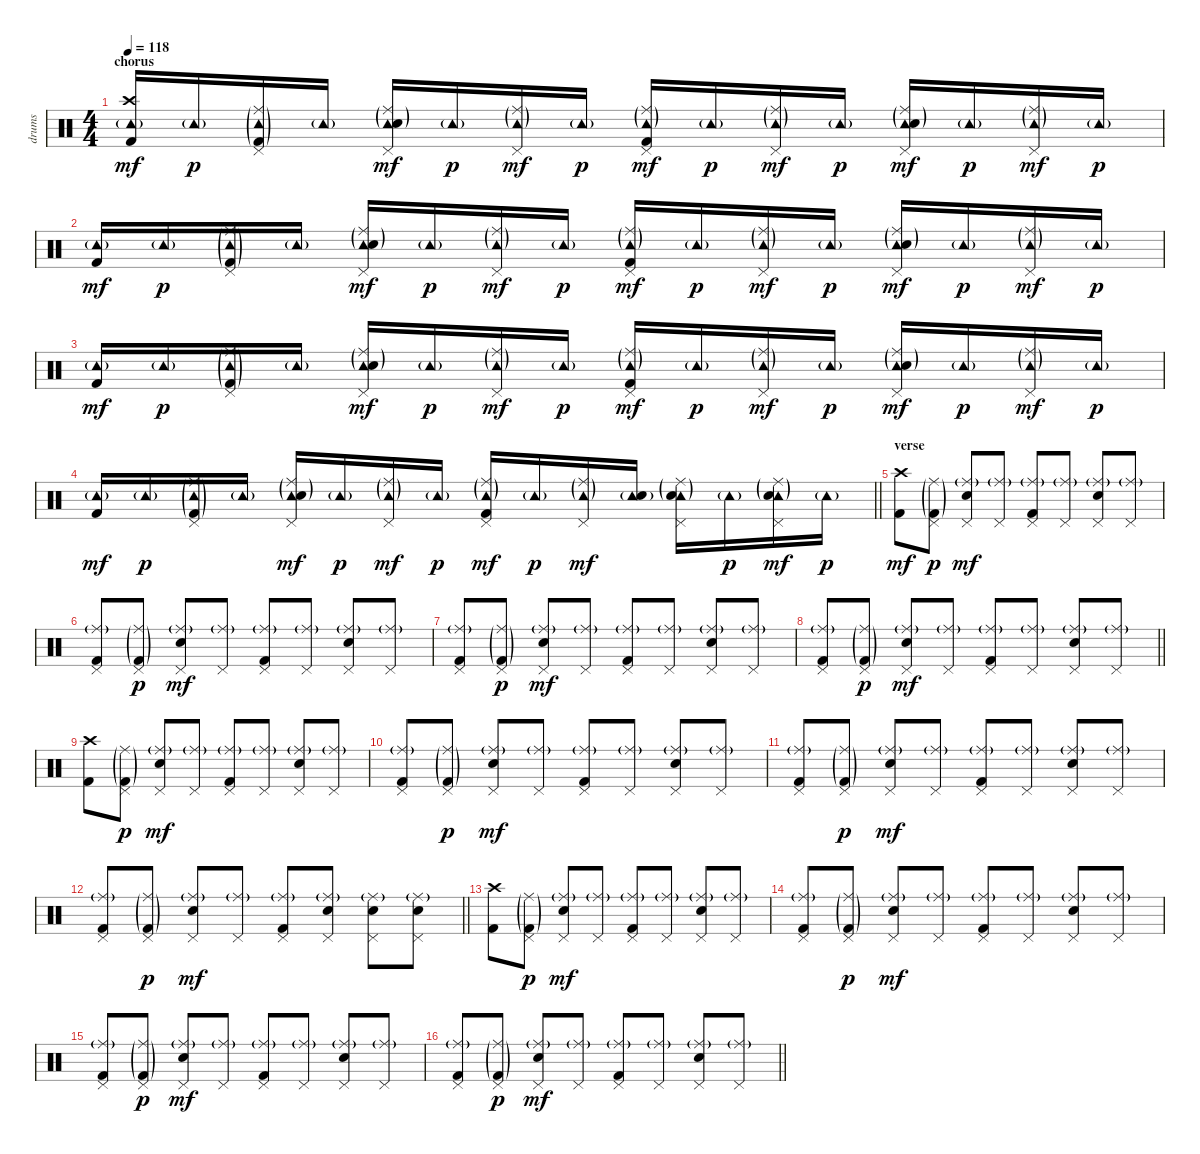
\track ("drums" "drums") {instrument percussion}
\staff {score}
\articulation defaults
\ts (4 4)
\section ("" "chorus")
\tempo 118
\clef neutral
\ks c
("Tambourine (hit)"{g} "Crash high (hit)" "Kick (hit) 2").16{dy mf} "Tambourine (hit)"{g}.16{dy p} ("Tambourine (hit)"{g} "Ride (middle)"{g} "Pedal Hi-Hat (hit)" "Kick (hit) 2"{g}).16 "Tambourine (hit)"{g}.16 ("Tambourine (hit)"{g} "Ride (middle)"{g} "Snare (hit) 2" "Pedal Hi-Hat (hit)").16{dy mf} "Tambourine (hit)"{g}.16{dy p} ("Tambourine (hit)"{g} "Ride (middle)"{g} "Pedal Hi-Hat (hit)").16{dy mf} "Tambourine (hit)"{g}.16{dy p} ("Tambourine (hit)"{g} "Ride (middle)"{g} "Kick (hit) 2" "Pedal Hi-Hat (hit)").16{dy mf} "Tambourine (hit)"{g}.16{dy p} ("Tambourine (hit)"{g} "Ride (middle)"{g} "Pedal Hi-Hat (hit)").16{dy mf} "Tambourine (hit)"{g}.16{dy p} ("Tambourine (hit)"{g} "Ride (middle)"{g} "Snare (hit) 2" "Pedal Hi-Hat (hit)").16{dy mf} "Tambourine (hit)"{g}.16{dy p} ("Tambourine (hit)"{g} "Ride (middle)"{g} "Pedal Hi-Hat (hit)").16{dy mf} "Tambourine (hit)"{g}.16{dy p} |
("Tambourine (hit)"{g} "Kick (hit) 2").16{dy mf} "Tambourine (hit)"{g}.16{dy p} ("Tambourine (hit)"{g} "Ride (middle)"{g} "Pedal Hi-Hat (hit)" "Kick (hit) 2"{g}).16 "Tambourine (hit)"{g}.16 ("Tambourine (hit)"{g} "Ride (middle)"{g} "Snare (hit) 2" "Pedal Hi-Hat (hit)").16{dy mf} "Tambourine (hit)"{g}.16{dy p} ("Tambourine (hit)"{g} "Ride (middle)"{g} "Pedal Hi-Hat (hit)").16{dy mf} "Tambourine (hit)"{g}.16{dy p} ("Tambourine (hit)"{g} "Ride (middle)"{g} "Kick (hit) 2" "Pedal Hi-Hat (hit)").16{dy mf} "Tambourine (hit)"{g}.16{dy p} ("Tambourine (hit)"{g} "Ride (middle)"{g} "Pedal Hi-Hat (hit)").16{dy mf} "Tambourine (hit)"{g}.16{dy p} ("Tambourine (hit)"{g} "Ride (middle)"{g} "Snare (hit) 2" "Pedal Hi-Hat (hit)").16{dy mf} "Tambourine (hit)"{g}.16{dy p} ("Tambourine (hit)"{g} "Ride (middle)"{g} "Pedal Hi-Hat (hit)").16{dy mf} "Tambourine (hit)"{g}.16{dy p} |
("Tambourine (hit)"{g} "Kick (hit) 2").16{dy mf} "Tambourine (hit)"{g}.16{dy p} ("Tambourine (hit)"{g} "Ride (middle)"{g} "Pedal Hi-Hat (hit)" "Kick (hit) 2"{g}).16 "Tambourine (hit)"{g}.16 ("Tambourine (hit)"{g} "Ride (middle)"{g} "Snare (hit) 2" "Pedal Hi-Hat (hit)").16{dy mf} "Tambourine (hit)"{g}.16{dy p} ("Tambourine (hit)"{g} "Ride (middle)"{g} "Pedal Hi-Hat (hit)").16{dy mf} "Tambourine (hit)"{g}.16{dy p} ("Tambourine (hit)"{g} "Ride (middle)"{g} "Kick (hit) 2" "Pedal Hi-Hat (hit)").16{dy mf} "Tambourine (hit)"{g}.16{dy p} ("Tambourine (hit)"{g} "Ride (middle)"{g} "Pedal Hi-Hat (hit)").16{dy mf} "Tambourine (hit)"{g}.16{dy p} ("Tambourine (hit)"{g} "Ride (middle)"{g} "Snare (hit) 2" "Pedal Hi-Hat (hit)").16{dy mf} "Tambourine (hit)"{g}.16{dy p} ("Tambourine (hit)"{g} "Ride (middle)"{g} "Pedal Hi-Hat (hit)").16{dy mf} "Tambourine (hit)"{g}.16{dy p} |
\barLineRight lightlight
("Tambourine (hit)"{g} "Kick (hit) 2").16{dy mf} "Tambourine (hit)"{g}.16{dy p} ("Tambourine (hit)"{g} "Ride (middle)"{g} "Pedal Hi-Hat (hit)" "Kick (hit) 2"{g}).16 "Tambourine (hit)"{g}.16 ("Tambourine (hit)"{g} "Ride (middle)"{g} "Snare (hit) 2" "Pedal Hi-Hat (hit)").16{dy mf} "Tambourine (hit)"{g}.16{dy p} ("Tambourine (hit)"{g} "Ride (middle)"{g} "Pedal Hi-Hat (hit)").16{dy mf} "Tambourine (hit)"{g}.16{dy p} ("Tambourine (hit)"{g} "Ride (middle)"{g} "Kick (hit) 2" "Pedal Hi-Hat (hit)").16{dy mf} "Tambourine (hit)"{g}.16{dy p} ("Tambourine (hit)"{g} "Ride (middle)"{g} "Pedal Hi-Hat (hit)").16{dy mf} ("Tambourine (hit)"{g} "Snare (hit) 2").16 ("Tambourine (hit)"{g} "Ride (middle)"{g} "Snare (hit) 2" "Pedal Hi-Hat (hit)").16 "Tambourine (hit)"{g}.16{dy p} ("Tambourine (hit)"{g} "Ride (middle)"{g} "Snare (hit) 2" "Pedal Hi-Hat (hit)").16{dy mf} "Tambourine (hit)"{g}.16{dy p} |
\section ("" "verse ")
("Crash high (hit)" "Kick (hit) 2").8{dy mf} ("Ride (middle)"{g} "Pedal Hi-Hat (hit)" "Kick (hit) 2"{g}).8{dy p} ("Ride (middle)"{g} "Snare (hit) 2" "Pedal Hi-Hat (hit)").8{dy mf} ("Ride (middle)"{g} "Pedal Hi-Hat (hit)").8 ("Ride (middle)"{g} "Kick (hit) 2" "Pedal Hi-Hat (hit)").8 ("Ride (middle)"{g} "Pedal Hi-Hat (hit)").8 ("Ride (middle)"{g} "Snare (hit) 2" "Pedal Hi-Hat (hit)").8 ("Ride (middle)"{g} "Pedal Hi-Hat (hit)").8 |
("Ride (middle)"{g} "Kick (hit) 2" "Pedal Hi-Hat (hit)").8 ("Ride (middle)"{g} "Pedal Hi-Hat (hit)" "Kick (hit) 2"{g}).8{dy p} ("Ride (middle)"{g} "Snare (hit) 2" "Pedal Hi-Hat (hit)").8{dy mf} ("Ride (middle)"{g} "Pedal Hi-Hat (hit)").8 ("Ride (middle)"{g} "Kick (hit) 2" "Pedal Hi-Hat (hit)").8 ("Ride (middle)"{g} "Pedal Hi-Hat (hit)").8 ("Ride (middle)"{g} "Snare (hit) 2" "Pedal Hi-Hat (hit)").8 ("Ride (middle)"{g} "Pedal Hi-Hat (hit)").8 |
("Ride (middle)"{g} "Kick (hit) 2" "Pedal Hi-Hat (hit)").8 ("Ride (middle)"{g} "Pedal Hi-Hat (hit)" "Kick (hit) 2"{g}).8{dy p} ("Ride (middle)"{g} "Snare (hit) 2" "Pedal Hi-Hat (hit)").8{dy mf} ("Ride (middle)"{g} "Pedal Hi-Hat (hit)").8 ("Ride (middle)"{g} "Kick (hit) 2" "Pedal Hi-Hat (hit)").8 ("Ride (middle)"{g} "Pedal Hi-Hat (hit)").8 ("Ride (middle)"{g} "Snare (hit) 2" "Pedal Hi-Hat (hit)").8 ("Ride (middle)"{g} "Pedal Hi-Hat (hit)").8 |
\barLineRight lightlight
("Ride (middle)"{g} "Kick (hit) 2" "Pedal Hi-Hat (hit)").8 ("Ride (middle)"{g} "Pedal Hi-Hat (hit)" "Kick (hit) 2"{g}).8{dy p} ("Ride (middle)"{g} "Snare (hit) 2" "Pedal Hi-Hat (hit)").8{dy mf} ("Ride (middle)"{g} "Pedal Hi-Hat (hit)").8 ("Ride (middle)"{g} "Kick (hit) 2" "Pedal Hi-Hat (hit)").8 ("Ride (middle)"{g} "Pedal Hi-Hat (hit)").8 ("Ride (middle)"{g} "Snare (hit) 2" "Pedal Hi-Hat (hit)").8 ("Ride (middle)"{g} "Pedal Hi-Hat (hit)").8 |
("Crash high (hit)" "Kick (hit) 2").8 ("Ride (middle)"{g} "Pedal Hi-Hat (hit)" "Kick (hit) 2"{g}).8{dy p} ("Ride (middle)"{g} "Snare (hit) 2" "Pedal Hi-Hat (hit)").8{dy mf} ("Ride (middle)"{g} "Pedal Hi-Hat (hit)").8 ("Ride (middle)"{g} "Kick (hit) 2" "Pedal Hi-Hat (hit)").8 ("Ride (middle)"{g} "Pedal Hi-Hat (hit)").8 ("Ride (middle)"{g} "Snare (hit) 2" "Pedal Hi-Hat (hit)").8 ("Ride (middle)"{g} "Pedal Hi-Hat (hit)").8 |
("Ride (middle)"{g} "Kick (hit) 2" "Pedal Hi-Hat (hit)").8 ("Ride (middle)"{g} "Pedal Hi-Hat (hit)" "Kick (hit) 2"{g}).8{dy p} ("Ride (middle)"{g} "Snare (hit) 2" "Pedal Hi-Hat (hit)").8{dy mf} ("Ride (middle)"{g} "Pedal Hi-Hat (hit)").8 ("Ride (middle)"{g} "Kick (hit) 2" "Pedal Hi-Hat (hit)").8 ("Ride (middle)"{g} "Pedal Hi-Hat (hit)").8 ("Ride (middle)"{g} "Snare (hit) 2" "Pedal Hi-Hat (hit)").8 ("Ride (middle)"{g} "Pedal Hi-Hat (hit)").8 |
("Ride (middle)"{g} "Kick (hit) 2" "Pedal Hi-Hat (hit)").8 ("Ride (middle)"{g} "Pedal Hi-Hat (hit)" "Kick (hit) 2"{g}).8{dy p} ("Ride (middle)"{g} "Snare (hit) 2" "Pedal Hi-Hat (hit)").8{dy mf} ("Ride (middle)"{g} "Pedal Hi-Hat (hit)").8 ("Ride (middle)"{g} "Kick (hit) 2" "Pedal Hi-Hat (hit)").8 ("Ride (middle)"{g} "Pedal Hi-Hat (hit)").8 ("Ride (middle)"{g} "Snare (hit) 2" "Pedal Hi-Hat (hit)").8 ("Ride (middle)"{g} "Pedal Hi-Hat (hit)").8 |
\barLineRight lightlight
("Ride (middle)"{g} "Kick (hit) 2" "Pedal Hi-Hat (hit)").8 ("Ride (middle)"{g} "Pedal Hi-Hat (hit)" "Kick (hit) 2"{g}).8{dy p} ("Ride (middle)"{g} "Snare (hit) 2" "Pedal Hi-Hat (hit)").8{dy mf} ("Ride (middle)"{g} "Pedal Hi-Hat (hit)").8 ("Ride (middle)"{g} "Kick (hit) 2" "Pedal Hi-Hat (hit)").8 ("Ride (middle)"{g} "Snare (hit) 2" "Pedal Hi-Hat (hit)").8 ("Ride (middle)"{g} "Snare (hit) 2" "Pedal Hi-Hat (hit)").8 ("Ride (middle)"{g} "Snare (hit) 2" "Pedal Hi-Hat (hit)").8 |
("Crash high (hit)" "Kick (hit) 2").8 ("Ride (middle)"{g} "Pedal Hi-Hat (hit)" "Kick (hit) 2"{g}).8{dy p} ("Ride (middle)"{g} "Snare (hit) 2" "Pedal Hi-Hat (hit)").8{dy mf} ("Ride (middle)"{g} "Pedal Hi-Hat (hit)").8 ("Ride (middle)"{g} "Kick (hit) 2" "Pedal Hi-Hat (hit)").8 ("Ride (middle)"{g} "Pedal Hi-Hat (hit)").8 ("Ride (middle)"{g} "Snare (hit) 2" "Pedal Hi-Hat (hit)").8 ("Ride (middle)"{g} "Pedal Hi-Hat (hit)").8 |
("Ride (middle)"{g} "Kick (hit) 2" "Pedal Hi-Hat (hit)").8 ("Ride (middle)"{g} "Pedal Hi-Hat (hit)" "Kick (hit) 2"{g}).8{dy p} ("Ride (middle)"{g} "Snare (hit) 2" "Pedal Hi-Hat (hit)").8{dy mf} ("Ride (middle)"{g} "Pedal Hi-Hat (hit)").8 ("Ride (middle)"{g} "Kick (hit) 2" "Pedal Hi-Hat (hit)").8 ("Ride (middle)"{g} "Pedal Hi-Hat (hit)").8 ("Ride (middle)"{g} "Snare (hit) 2" "Pedal Hi-Hat (hit)").8 ("Ride (middle)"{g} "Pedal Hi-Hat (hit)").8 |
("Ride (middle)"{g} "Kick (hit) 2" "Pedal Hi-Hat (hit)").8 ("Ride (middle)"{g} "Pedal Hi-Hat (hit)" "Kick (hit) 2"{g}).8{dy p} ("Ride (middle)"{g} "Snare (hit) 2" "Pedal Hi-Hat (hit)").8{dy mf} ("Ride (middle)"{g} "Pedal Hi-Hat (hit)").8 ("Ride (middle)"{g} "Kick (hit) 2" "Pedal Hi-Hat (hit)").8 ("Ride (middle)"{g} "Pedal Hi-Hat (hit)").8 ("Ride (middle)"{g} "Snare (hit) 2" "Pedal Hi-Hat (hit)").8 ("Ride (middle)"{g} "Pedal Hi-Hat (hit)").8 |
\barLineRight lightlight
("Ride (middle)"{g} "Kick (hit) 2" "Pedal Hi-Hat (hit)").8 ("Ride (middle)"{g} "Pedal Hi-Hat (hit)" "Kick (hit) 2"{g}).8{dy p} ("Ride (middle)"{g} "Snare (hit) 2" "Pedal Hi-Hat (hit)").8{dy mf} ("Ride (middle)"{g} "Pedal Hi-Hat (hit)").8 ("Ride (middle)"{g} "Kick (hit) 2" "Pedal Hi-Hat (hit)").8 ("Ride (middle)"{g} "Pedal Hi-Hat (hit)").8 ("Ride (middle)"{g} "Snare (hit) 2" "Pedal Hi-Hat (hit)").8 ("Ride (middle)"{g} "Pedal Hi-Hat (hit)").8
